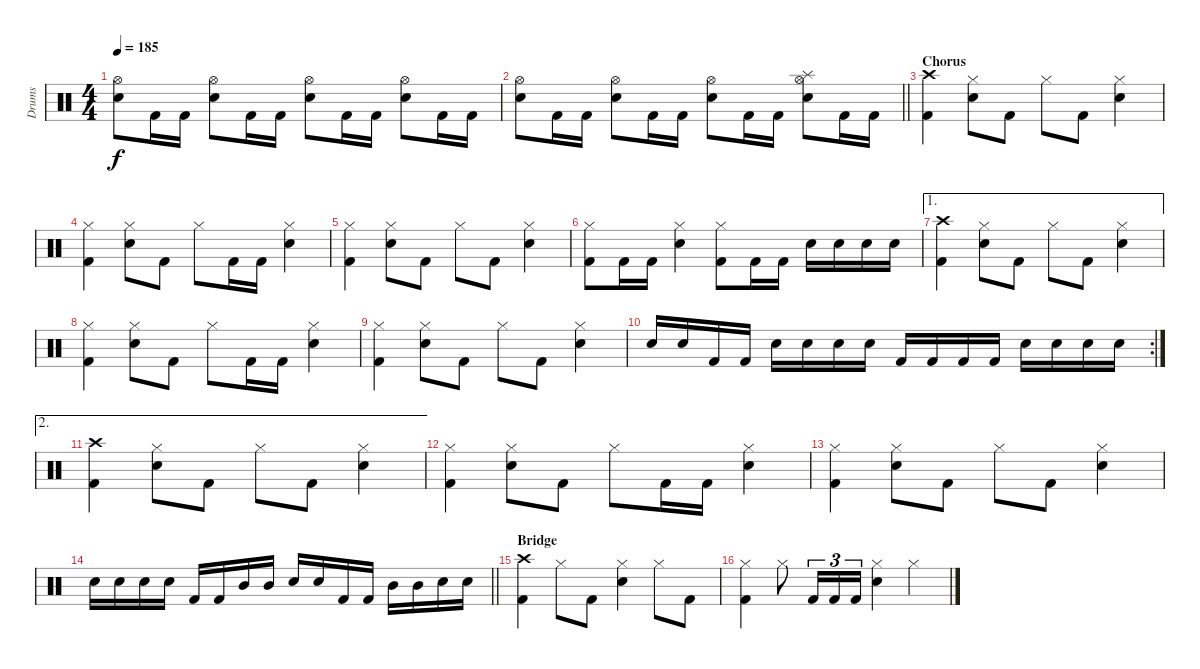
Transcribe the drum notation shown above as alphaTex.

\track ("Drums" "Drums") {instrument percussion}
\staff {score}
\articulation defaults
\ts (4 4)
\tempo 185
\clef neutral
\ks c
("Hi-Hat (open)" "Snare (hit) 2").8{dy f} "Kick (hit) 2".16 "Kick (hit) 2".16 ("Hi-Hat (open)" "Snare (hit) 2").8 "Kick (hit) 2".16 "Kick (hit) 2".16 ("Hi-Hat (open)" "Snare (hit) 2").8 "Kick (hit) 2".16 "Kick (hit) 2".16 ("Hi-Hat (open)" "Snare (hit) 2").8 "Kick (hit) 2".16 "Kick (hit) 2".16 |
\barLineRight lightlight
("Hi-Hat (open)" "Snare (hit) 2").8 "Kick (hit) 2".16 "Kick (hit) 2".16 ("Hi-Hat (open)" "Snare (hit) 2").8 "Kick (hit) 2".16 "Kick (hit) 2".16 ("Hi-Hat (open)" "Snare (hit) 2").8 "Kick (hit) 2".16 "Kick (hit) 2".16 ("Hi-Hat (open)" "Snare (hit) 2" "Splash (hit)").8 "Kick (hit) 2".16 "Kick (hit) 2".16 |
\section ("" "Chorus")
("Kick (hit) 2" "Crash high (hit)").4 ("Snare (hit) 2" "Hi-Hat (closed)").8 "Kick (hit) 2".8 "Hi-Hat (closed)".8 "Kick (hit) 2".8 ("Snare (hit) 2" "Hi-Hat (closed)").4 |
("Kick (hit) 2" "Hi-Hat (closed)").4 ("Snare (hit) 2" "Hi-Hat (closed)").8 "Kick (hit) 2".8 "Hi-Hat (closed)".8 "Kick (hit) 2".16 "Kick (hit) 2".16 ("Snare (hit) 2" "Hi-Hat (closed)").4 |
("Kick (hit) 2" "Hi-Hat (closed)").4 ("Snare (hit) 2" "Hi-Hat (closed)").8 "Kick (hit) 2".8 "Hi-Hat (closed)".8 "Kick (hit) 2".8 ("Snare (hit) 2" "Hi-Hat (closed)").4 |
("Hi-Hat (closed)" "Kick (hit) 2").8 "Kick (hit) 2".16 "Kick (hit) 2".16 ("Hi-Hat (closed)" "Snare (hit) 2").4 ("Hi-Hat (closed)" "Kick (hit) 2").8 "Kick (hit) 2".16 "Kick (hit) 2".16 "Snare (hit) 2".16 "Snare (hit) 2".16 "Snare (hit) 2".16 "Snare (hit) 2".16 |
\ae 1
("Kick (hit) 2" "Crash high (hit)").4 ("Snare (hit) 2" "Hi-Hat (closed)").8 "Kick (hit) 2".8 "Hi-Hat (closed)".8 "Kick (hit) 2".8 ("Snare (hit) 2" "Hi-Hat (closed)").4 |
("Kick (hit) 2" "Hi-Hat (closed)").4 ("Snare (hit) 2" "Hi-Hat (closed)").8 "Kick (hit) 2".8 "Hi-Hat (closed)".8 "Kick (hit) 2".16 "Kick (hit) 2".16 ("Snare (hit) 2" "Hi-Hat (closed)").4 |
("Kick (hit) 2" "Hi-Hat (closed)").4 ("Snare (hit) 2" "Hi-Hat (closed)").8 "Kick (hit) 2".8 "Hi-Hat (closed)".8 "Kick (hit) 2".8 ("Snare (hit) 2" "Hi-Hat (closed)").4 |
\rc 2 "Snare (hit) 2".16 "Snare (hit) 2".16 "Kick (hit) 2".16 "Kick (hit) 2".16 "Snare (hit) 2".16 "Snare (hit) 2".16 "Snare (hit) 2".16 "Snare (hit) 2".16 "Kick (hit) 2".16 "Kick (hit) 2".16 "Kick (hit) 2".16 "Kick (hit) 2".16 "Snare (hit) 2".16 "Snare (hit) 2".16 "Snare (hit) 2".16 "Snare (hit) 2".16
|
\ae 2
("Kick (hit) 2" "Crash high (hit)").4 ("Snare (hit) 2" "Hi-Hat (closed)").8 "Kick (hit) 2".8 "Hi-Hat (closed)".8 "Kick (hit) 2".8 ("Snare (hit) 2" "Hi-Hat (closed)").4 |
("Kick (hit) 2" "Hi-Hat (closed)").4 ("Snare (hit) 2" "Hi-Hat (closed)").8 "Kick (hit) 2".8 "Hi-Hat (closed)".8 "Kick (hit) 2".16 "Kick (hit) 2".16 ("Snare (hit) 2" "Hi-Hat (closed)").4 |
("Kick (hit) 2" "Hi-Hat (closed)").4 ("Snare (hit) 2" "Hi-Hat (closed)").8 "Kick (hit) 2".8 "Hi-Hat (closed)".8 "Kick (hit) 2".8 ("Snare (hit) 2" "Hi-Hat (closed)").4 |
\barLineRight lightlight "Snare (hit) 2".16 "Snare (hit) 2".16 "Snare (hit) 2".16 "Snare (hit) 2".16 "Kick (hit) 2".16 "Kick (hit) 2".16 "Mid Tom (hit)".16 "Mid Tom (hit)".16 "Snare (hit) 2".16 "Snare (hit) 2".16 "Kick (hit) 2".16 "Kick (hit) 2".16 "Mid Tom (hit)".16 "Mid Tom (hit)".16 "Snare (hit) 2".16 "Snare (hit) 2".16
|
\section ("" "Bridge")
("Crash high (hit)" "Kick (hit) 2").4 "Hi-Hat (closed)".8 "Kick (hit) 2".8 ("Hi-Hat (closed)" "Snare (hit) 2").4 "Hi-Hat (closed)".8 "Kick (hit) 2".8 |
("Kick (hit) 2" "Hi-Hat (closed)").4 "Hi-Hat (closed)".8 "Kick (hit) 2".16{tu (3 2)} "Kick (hit) 2".16{tu (3 2)} "Kick (hit) 2".16{tu (3 2)} ("Hi-Hat (closed)" "Snare (hit) 2").4 "Hi-Hat (closed)".4
